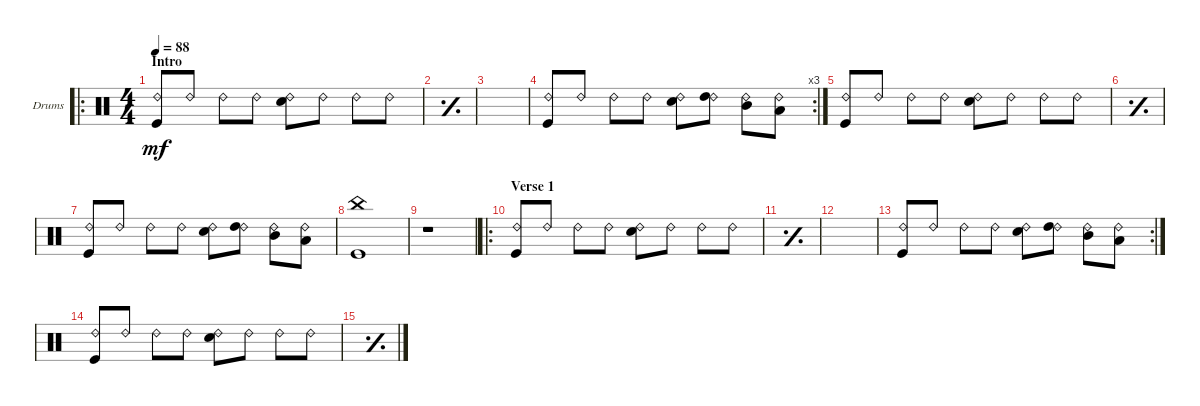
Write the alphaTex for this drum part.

\defaultSystemsLayout 4
\bracketExtendMode groupsimilarinstruments
\firstSystemTrackNameOrientation horizontal
\otherSystemsTrackNameOrientation horizontal
\track ("Drumkit" "Drums") {instrument percussion}
\staff {score}
\articulation defaults
\ro
\ts (4 4)
\section ("" "Intro")
\tempo 88
\clef neutral
\ks c
("Ride (bell) 2" "Kick (hit)").8{dy mf} "Ride (bell) 2".8 "Ride (bell) 2".8 "Ride (bell) 2".8 ("Ride (bell) 2" "Snare (hit) 2").8 "Ride (bell) 2".8 "Ride (bell) 2".8 "Ride (bell) 2".8 |
\simile simple
|
|
\rc 3
\simile none
("Ride (bell) 2" "Kick (hit)").8 "Ride (bell) 2".8 "Ride (bell) 2".8 "Ride (bell) 2".8 ("Ride (bell) 2" "Snare (hit) 2").8 ("Ride (bell) 2" "High Tom (hit)").8 ("Ride (bell) 2" "Mid Tom (hit)").8 ("Ride (bell) 2" "Low Tom (hit)").8 |
("Ride (bell) 2" "Kick (hit)").8 "Ride (bell) 2".8 "Ride (bell) 2".8 "Ride (bell) 2".8 ("Ride (bell) 2" "Snare (hit) 2").8 "Ride (bell) 2".8 "Ride (bell) 2".8 "Ride (bell) 2".8 |
\simile simple
|
\simile none
("Ride (bell) 2" "Kick (hit)").8 "Ride (bell) 2".8 "Ride (bell) 2".8 "Ride (bell) 2".8 ("Ride (bell) 2" "Snare (hit) 2").8 ("Ride (bell) 2" "High Tom (hit)").8 ("Ride (bell) 2" "Mid Tom (hit)").8 ("Ride (bell) 2" "Low Tom (hit)").8 |
("Kick (hit)" "China (hit)").1 |
r.1 |
\ro
\section ("" "Verse 1")
("Ride (bell) 2" "Kick (hit)").8 "Ride (bell) 2".8 "Ride (bell) 2".8 "Ride (bell) 2".8 ("Ride (bell) 2" "Snare (hit) 2").8 "Ride (bell) 2".8 "Ride (bell) 2".8 "Ride (bell) 2".8 |
\simile simple
|
|
\rc 2
\simile none
("Ride (bell) 2" "Kick (hit)").8 "Ride (bell) 2".8 "Ride (bell) 2".8 "Ride (bell) 2".8 ("Ride (bell) 2" "Snare (hit) 2").8 ("Ride (bell) 2" "High Tom (hit)").8 ("Ride (bell) 2" "Mid Tom (hit)").8 ("Ride (bell) 2" "Low Tom (hit)").8 |
("Ride (bell) 2" "Kick (hit)").8 "Ride (bell) 2".8 "Ride (bell) 2".8 "Ride (bell) 2".8 ("Ride (bell) 2" "Snare (hit) 2").8 "Ride (bell) 2".8 "Ride (bell) 2".8 "Ride (bell) 2".8 |
\simile simple
